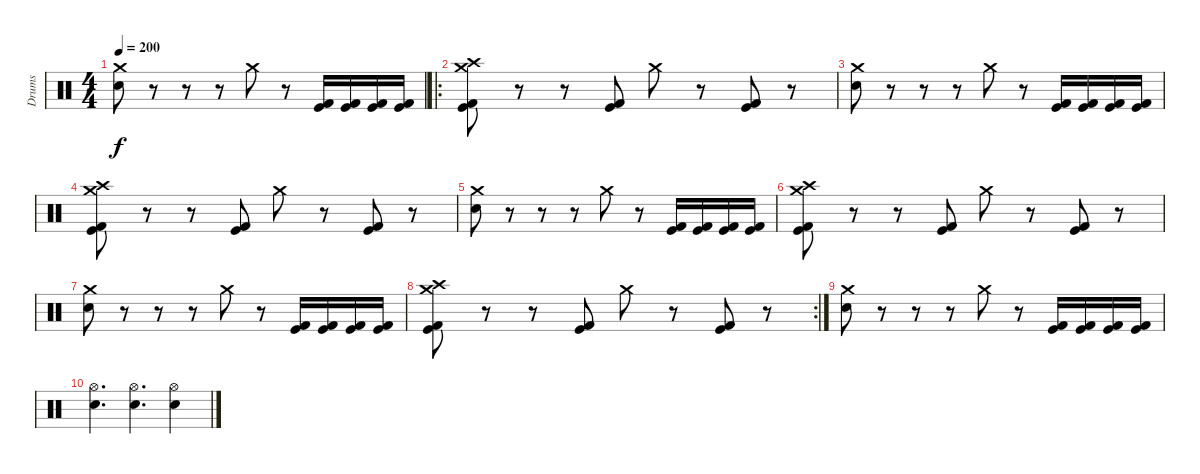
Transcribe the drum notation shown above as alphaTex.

\track ("Drums" "Drums") {instrument percussion}
\staff {score}
\articulation defaults
\ts (4 4)
\tempo 200
\clef neutral
\ks c
("Crash medium (hit)" "Electric Snare (hit)").8{dy f} r.8 r.8 r.8 "Crash medium (hit)".8 r.8 ("Kick (hit) 2" "Kick (hit)").16 ("Kick (hit) 2" "Kick (hit)").16 ("Kick (hit) 2" "Kick (hit)").16 ("Kick (hit) 2" "Kick (hit)").16 |
\ro
("Crash medium (hit)" "Crash high (hit)" "Kick (hit) 2" "Kick (hit)").8 r.8 r.8 ("Kick (hit) 2" "Kick (hit)").8 "Crash medium (hit)".8 r.8 ("Kick (hit) 2" "Kick (hit)").8 r.8 |
("Crash medium (hit)" "Electric Snare (hit)").8 r.8 r.8 r.8 "Crash medium (hit)".8 r.8 ("Kick (hit) 2" "Kick (hit)").16 ("Kick (hit) 2" "Kick (hit)").16 ("Kick (hit) 2" "Kick (hit)").16 ("Kick (hit) 2" "Kick (hit)").16 |
("Crash medium (hit)" "Crash high (hit)" "Kick (hit) 2" "Kick (hit)").8 r.8 r.8 ("Kick (hit) 2" "Kick (hit)").8 "Crash medium (hit)".8 r.8 ("Kick (hit) 2" "Kick (hit)").8 r.8 |
("Crash medium (hit)" "Electric Snare (hit)").8 r.8 r.8 r.8 "Crash medium (hit)".8 r.8 ("Kick (hit) 2" "Kick (hit)").16 ("Kick (hit) 2" "Kick (hit)").16 ("Kick (hit) 2" "Kick (hit)").16 ("Kick (hit) 2" "Kick (hit)").16 |
("Crash medium (hit)" "Crash high (hit)" "Kick (hit) 2" "Kick (hit)").8 r.8 r.8 ("Kick (hit) 2" "Kick (hit)").8 "Crash medium (hit)".8 r.8 ("Kick (hit) 2" "Kick (hit)").8 r.8 |
("Crash medium (hit)" "Electric Snare (hit)").8 r.8 r.8 r.8 "Crash medium (hit)".8 r.8 ("Kick (hit) 2" "Kick (hit)").16 ("Kick (hit) 2" "Kick (hit)").16 ("Kick (hit) 2" "Kick (hit)").16 ("Kick (hit) 2" "Kick (hit)").16 |
\rc 2
("Crash medium (hit)" "Crash high (hit)" "Kick (hit) 2" "Kick (hit)").8 r.8 r.8 ("Kick (hit) 2" "Kick (hit)").8 "Crash medium (hit)".8 r.8 ("Kick (hit) 2" "Kick (hit)").8 r.8 |
("Crash medium (hit)" "Electric Snare (hit)").8 r.8 r.8 r.8 "Crash medium (hit)".8 r.8 ("Kick (hit) 2" "Kick (hit)").16 ("Kick (hit) 2" "Kick (hit)").16 ("Kick (hit) 2" "Kick (hit)").16 ("Kick (hit) 2" "Kick (hit)").16 |
("Hi-Hat (open)" "Electric Snare (hit)").4{d} ("Hi-Hat (open)" "Electric Snare (hit)").4{d} ("Hi-Hat (open)" "Electric Snare (hit)").4
